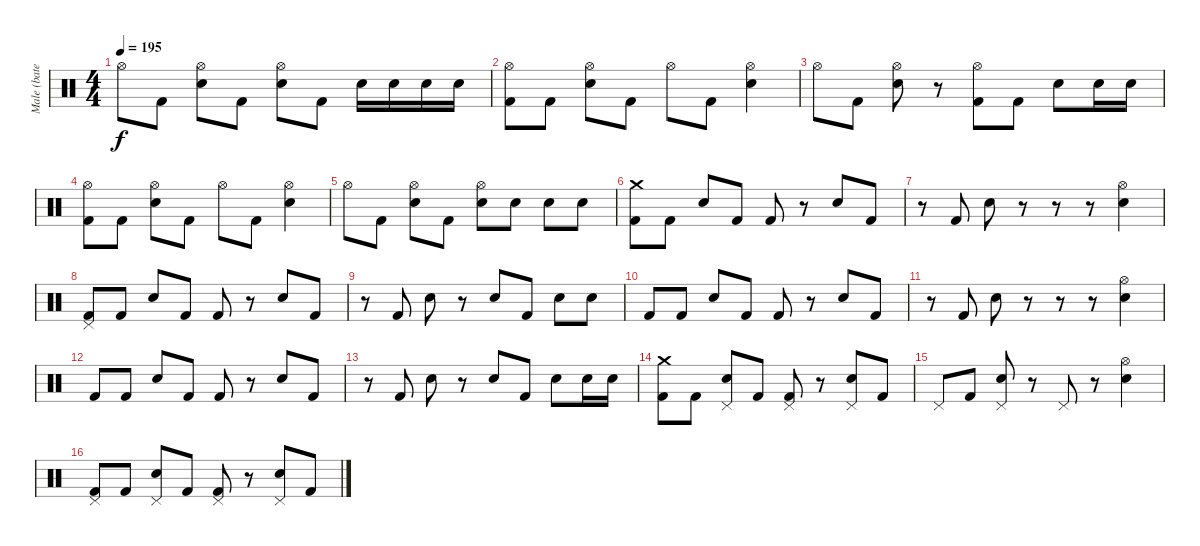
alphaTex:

\track ("Male (bateria)" "Male (bate") {instrument percussion}
\staff {score}
\articulation defaults
\ts (4 4)
\tempo 195
\clef neutral
\ks c "Hi-Hat (open)".8{dy f} "Kick (hit) 2".8
("Electric Snare (hit)" "Hi-Hat (open)").8 "Kick (hit) 2".8 ("Electric Snare (hit)" "Hi-Hat (open)").8 "Kick (hit) 2".8 "Electric Snare (hit)".16 "Electric Snare (hit)".16 "Electric Snare (hit)".16 "Electric Snare (hit)".16 |
("Kick (hit) 2" "Hi-Hat (open)").8 "Kick (hit) 2".8 ("Electric Snare (hit)" "Hi-Hat (open)").8 "Kick (hit) 2".8 "Hi-Hat (open)".8 "Kick (hit) 2".8 ("Electric Snare (hit)" "Hi-Hat (open)").4 |
"Hi-Hat (open)".8 "Kick (hit) 2".8 ("Electric Snare (hit)" "Hi-Hat (open)").8 r.8 ("Kick (hit) 2" "Hi-Hat (open)").8 "Kick (hit) 2".8 "Electric Snare (hit)".8 "Electric Snare (hit)".16 "Electric Snare (hit)".16 |
("Kick (hit) 2" "Hi-Hat (open)").8 "Kick (hit) 2".8 ("Electric Snare (hit)" "Hi-Hat (open)").8 "Kick (hit) 2".8 "Hi-Hat (open)".8 "Kick (hit) 2".8 ("Electric Snare (hit)" "Hi-Hat (open)").4 |
"Hi-Hat (open)".8 "Kick (hit) 2".8 ("Electric Snare (hit)" "Hi-Hat (open)").8 "Kick (hit) 2".8 ("Electric Snare (hit)" "Hi-Hat (open)").8 "Electric Snare (hit)".8 "Electric Snare (hit)".8 "Electric Snare (hit)".8 |
("Kick (hit) 2" "Crash medium (hit)").8 "Kick (hit) 2".8 "Electric Snare (hit)".8 "Kick (hit) 2".8 "Kick (hit) 2".8 r.8 "Electric Snare (hit)".8 "Kick (hit) 2".8 |
r.8 "Kick (hit) 2".8 "Electric Snare (hit)".8 r.8 r.8 r.8 ("Electric Snare (hit)" "Hi-Hat (open)").4 |
("Kick (hit) 2" "Pedal Hi-Hat (hit)").8 "Kick (hit) 2".8 "Electric Snare (hit)".8 "Kick (hit) 2".8 "Kick (hit) 2".8 r.8 "Electric Snare (hit)".8 "Kick (hit) 2".8 |
r.8 "Kick (hit) 2".8 "Electric Snare (hit)".8 r.8 "Electric Snare (hit)".8 "Kick (hit) 2".8 "Electric Snare (hit)".8 "Electric Snare (hit)".8 |
"Kick (hit) 2".8 "Kick (hit) 2".8 "Electric Snare (hit)".8 "Kick (hit) 2".8 "Kick (hit) 2".8 r.8 "Electric Snare (hit)".8 "Kick (hit) 2".8 |
r.8 "Kick (hit) 2".8 "Electric Snare (hit)".8 r.8 r.8 r.8 ("Electric Snare (hit)" "Hi-Hat (open)").4 |
"Kick (hit) 2".8 "Kick (hit) 2".8 "Electric Snare (hit)".8 "Kick (hit) 2".8 "Kick (hit) 2".8 r.8 "Electric Snare (hit)".8 "Kick (hit) 2".8 |
r.8 "Kick (hit) 2".8 "Electric Snare (hit)".8 r.8 "Electric Snare (hit)".8 "Kick (hit) 2".8 "Electric Snare (hit)".8 "Electric Snare (hit)".16 "Electric Snare (hit)".16 |
("Kick (hit) 2" "Crash medium (hit)").8 "Kick (hit) 2".8 ("Electric Snare (hit)" "Pedal Hi-Hat (hit)").8 "Kick (hit) 2".8 ("Kick (hit) 2" "Pedal Hi-Hat (hit)").8 r.8 ("Electric Snare (hit)" "Pedal Hi-Hat (hit)").8 "Kick (hit) 2".8 |
"Pedal Hi-Hat (hit)".8 "Kick (hit) 2".8 ("Electric Snare (hit)" "Pedal Hi-Hat (hit)").8 r.8 "Pedal Hi-Hat (hit)".8 r.8 ("Electric Snare (hit)" "Hi-Hat (open)").4 |
("Kick (hit) 2" "Pedal Hi-Hat (hit)").8 "Kick (hit) 2".8 ("Electric Snare (hit)" "Pedal Hi-Hat (hit)").8 "Kick (hit) 2".8 ("Kick (hit) 2" "Pedal Hi-Hat (hit)").8 r.8 ("Electric Snare (hit)" "Pedal Hi-Hat (hit)").8 "Kick (hit) 2".8
